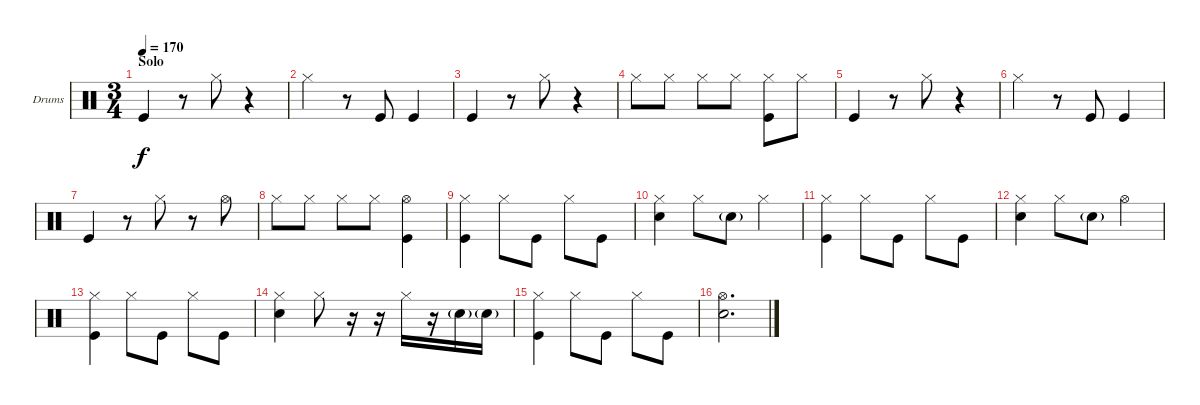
\defaultSystemsLayout 4
\bracketExtendMode groupsimilarinstruments
\firstSystemTrackNameOrientation horizontal
\otherSystemsTrackNameOrientation horizontal
\track ("Drums" "Drums") {instrument percussion}
\staff {score}
\articulation defaults
\ts (3 4)
\section ("" "Solo")
\tempo 170
\clef neutral
\ks c "Kick (hit)".4{dy f}
r.8 "Hi-Hat (closed)".8 r.4 |
"Hi-Hat (closed)".4 r.8 "Kick (hit)".8 "Kick (hit)".4 |
"Kick (hit)".4 r.8 "Hi-Hat (closed)".8 r.4 |
"Hi-Hat (closed)".8 "Hi-Hat (closed)".8 "Hi-Hat (closed)".8 "Hi-Hat (closed)".8 ("Kick (hit)" "Hi-Hat (closed)").8 "Hi-Hat (closed)".8 |
"Kick (hit)".4 r.8 "Hi-Hat (closed)".8 r.4 |
"Hi-Hat (closed)".4 r.8 "Kick (hit)".8 "Kick (hit)".4 |
"Kick (hit)".4 r.8 "Hi-Hat (closed)".8 r.8 "Hi-Hat (open)".8 |
"Hi-Hat (closed)".8 "Hi-Hat (closed)".8 "Hi-Hat (closed)".8 "Hi-Hat (closed)".8 ("Kick (hit)" "Hi-Hat (open)").4 |
("Kick (hit)" "Hi-Hat (closed)").4 "Hi-Hat (closed)".8 "Kick (hit)".8 "Hi-Hat (closed)".8 "Kick (hit)".8 |
("Snare (hit) 2" "Hi-Hat (closed)").4 "Hi-Hat (closed)".8 "Snare (hit) 2"{g}.8 "Hi-Hat (closed)".4 |
("Kick (hit)" "Hi-Hat (closed)").4 "Hi-Hat (closed)".8 "Kick (hit)".8 "Hi-Hat (closed)".8 "Kick (hit)".8 |
("Snare (hit) 2" "Hi-Hat (closed)").4 "Hi-Hat (closed)".8 "Snare (hit) 2"{g}.8 "Hi-Hat (open)".4 |
("Kick (hit)" "Hi-Hat (closed)").4 "Hi-Hat (closed)".8 "Kick (hit)".8 "Hi-Hat (closed)".8 "Kick (hit)".8 |
("Snare (hit) 2" "Hi-Hat (closed)").4 "Hi-Hat (closed)".8 r.16 r.16 "Hi-Hat (closed)".16 r.16 "Snare (hit) 2"{g}.16 "Snare (hit) 2"{g}.16 |
("Kick (hit)" "Hi-Hat (closed)").4 "Hi-Hat (closed)".8 "Kick (hit)".8 "Hi-Hat (closed)".8 "Kick (hit)".8 |
("Snare (hit) 2" "Hi-Hat (open)").2{d}
